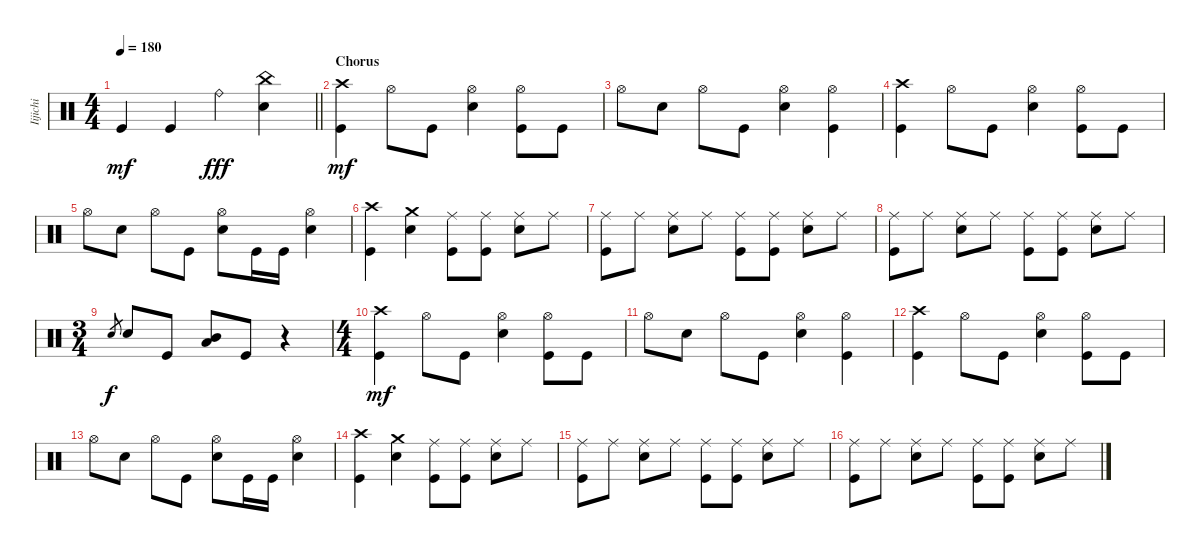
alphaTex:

\track ("Iijichi" "Iijichi") {instrument percussion}
\staff {score}
\articulation defaults
\ts (4 4)
\tempo 180
\clef neutral
\barLineRight lightlight
\ks c "Kick (hit)".4{dy mf} "Kick (hit)".4 "Ride (bell)".4{dy fff volume 14}
("Electric Snare (hit)" "China (hit)").4{volume 12} |
\section ("" "Chorus")
("Crash high (hit)" "Kick (hit)").4{dy mf} "Hi-Hat (open)".8 "Kick (hit)".8 ("Hi-Hat (open)" "Electric Snare (hit)").4 ("Hi-Hat (open)" "Kick (hit)").8 "Kick (hit)".8 |
"Hi-Hat (open)".8 "Electric Snare (hit)".8 "Hi-Hat (open)".8 "Kick (hit)".8 ("Hi-Hat (open)" "Electric Snare (hit)").4 ("Hi-Hat (open)" "Kick (hit)").4 |
("Crash high (hit)" "Kick (hit)").4 "Hi-Hat (open)".8 "Kick (hit)".8 ("Hi-Hat (open)" "Electric Snare (hit)").4 ("Hi-Hat (open)" "Kick (hit)").8 "Kick (hit)".8 |
"Hi-Hat (open)".8 "Electric Snare (hit)".8 "Hi-Hat (open)".8 "Kick (hit)".8 ("Hi-Hat (open)" "Electric Snare (hit)").8 "Kick (hit)".16 "Kick (hit)".16 ("Electric Snare (hit)" "Hi-Hat (open)").4 |
("Kick (hit)" "Crash high (hit)").4 ("Crash medium (hit)" "Electric Snare (hit)").4 ("Kick (hit)" "Ride (middle)").8 ("Ride (middle)" "Kick (hit)").8 ("Ride (middle)" "Electric Snare (hit)").8 "Ride (middle)".8 |
("Kick (hit)" "Ride (middle)").8 "Ride (middle)".8 ("Electric Snare (hit)" "Ride (middle)").8 "Ride (middle)".8 ("Kick (hit)" "Ride (middle)").8 ("Ride (middle)" "Kick (hit)").8 ("Ride (middle)" "Electric Snare (hit)").8 "Ride (middle)".8 |
("Kick (hit)" "Ride (middle)").8 "Ride (middle)".8 ("Electric Snare (hit)" "Ride (middle)").8 "Ride (middle)".8 ("Kick (hit)" "Ride (middle)").8 ("Ride (middle)" "Kick (hit)").8 ("Ride (middle)" "Electric Snare (hit)").8 "Ride (middle)".8 |
\ts (3 4)
"Electric Snare (hit)".8{gr dy f} "Electric Snare (hit)".8 "Kick (hit)".8 ("Mid Tom (hit)" "Low Floor Tom (hit)").8 "Kick (hit)".8 r.4 |
\ts (4 4)
("Crash high (hit)" "Kick (hit)").4{dy mf} "Hi-Hat (open)".8 "Kick (hit)".8 ("Hi-Hat (open)" "Electric Snare (hit)").4 ("Hi-Hat (open)" "Kick (hit)").8 "Kick (hit)".8 |
"Hi-Hat (open)".8 "Electric Snare (hit)".8 "Hi-Hat (open)".8 "Kick (hit)".8 ("Hi-Hat (open)" "Electric Snare (hit)").4 ("Hi-Hat (open)" "Kick (hit)").4 |
("Crash high (hit)" "Kick (hit)").4 "Hi-Hat (open)".8 "Kick (hit)".8 ("Hi-Hat (open)" "Electric Snare (hit)").4 ("Hi-Hat (open)" "Kick (hit)").8 "Kick (hit)".8 |
"Hi-Hat (open)".8 "Electric Snare (hit)".8 "Hi-Hat (open)".8 "Kick (hit)".8 ("Hi-Hat (open)" "Electric Snare (hit)").8 "Kick (hit)".16 "Kick (hit)".16 ("Electric Snare (hit)" "Hi-Hat (open)").4 |
("Kick (hit)" "Crash high (hit)").4 ("Crash medium (hit)" "Electric Snare (hit)").4 ("Kick (hit)" "Ride (middle)").8 ("Ride (middle)" "Kick (hit)").8 ("Ride (middle)" "Electric Snare (hit)").8 "Ride (middle)".8 |
("Kick (hit)" "Ride (middle)").8 "Ride (middle)".8 ("Electric Snare (hit)" "Ride (middle)").8 "Ride (middle)".8 ("Kick (hit)" "Ride (middle)").8 ("Ride (middle)" "Kick (hit)").8 ("Ride (middle)" "Electric Snare (hit)").8 "Ride (middle)".8 |
("Kick (hit)" "Ride (middle)").8 "Ride (middle)".8 ("Electric Snare (hit)" "Ride (middle)").8 "Ride (middle)".8 ("Kick (hit)" "Ride (middle)").8 ("Ride (middle)" "Kick (hit)").8 ("Ride (middle)" "Electric Snare (hit)").8 "Ride (middle)".8
